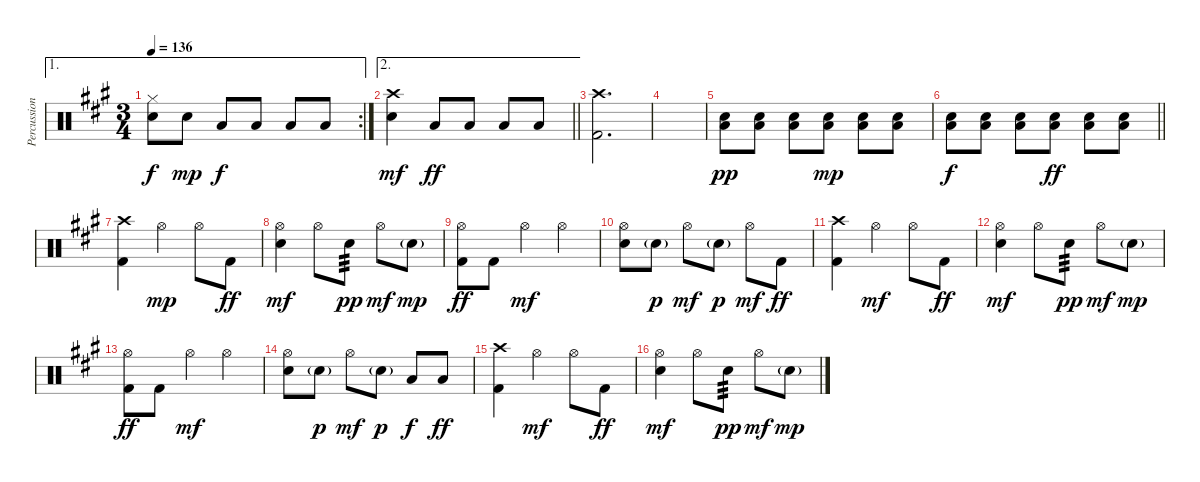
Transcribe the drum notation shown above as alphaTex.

\track ("Percussion" "Percussion") {solo instrument percussion}
\staff {score}
\articulation defaults
\ae 1
\rc 2
\ts (3 4)
\tempo 136
\clef neutral
\ks a
("Hi-Hat (closed)" "Snare (hit) 2").8{dy f} "Snare (hit) 2".8{dy mp} "Low Tom (hit)".8{dy f} "Low Tom (hit)".8 "Low Floor Tom (hit)".8 "Low Floor Tom (hit)".8 |
\ae 2
\barLineRight lightlight
("Crash high (hit)" "Snare (hit) 2").4{dy mf} "Low Tom (hit)".8{dy ff} "Low Tom (hit)".8 "Low Floor Tom (hit)".8 "Low Floor Tom (hit)".8 |
("Crash high (hit)" "Kick (hit) 2").2{d} |
|
("Snare (hit) 2" "Low Floor Tom (hit)").8{dy pp} ("Snare (hit) 2" "Low Floor Tom (hit)").8 ("Snare (hit) 2" "Low Floor Tom (hit)").8 ("Snare (hit) 2" "Low Floor Tom (hit)").8{dy mp} ("Snare (hit) 2" "Low Floor Tom (hit)").8 ("Snare (hit) 2" "Low Floor Tom (hit)").8 |
\barLineRight lightlight
("Snare (hit) 2" "Low Floor Tom (hit)").8{dy f} ("Snare (hit) 2" "Low Floor Tom (hit)").8 ("Snare (hit) 2" "Low Floor Tom (hit)").8 ("Snare (hit) 2" "Low Floor Tom (hit)").8{dy ff} ("Snare (hit) 2" "Low Floor Tom (hit)").8 ("Snare (hit) 2" "Low Floor Tom (hit)").8 |
("Crash high (hit)" "Kick (hit) 2").4 "Hi-Hat (open)".4{dy mp} "Hi-Hat (open)".8 "Kick (hit) 2".8{dy ff} |
("Hi-Hat (open)" "Snare (hit) 2").4{dy mf} "Hi-Hat (open)".8 "Snare (hit) 2".8{tp 3 dy pp} "Hi-Hat (open)".8{dy mf} "Snare (hit) 2"{g}.8{dy mp} |
("Hi-Hat (open)" "Kick (hit) 2").8{dy ff} "Kick (hit) 2".8 "Hi-Hat (open)".4{dy mf} "Hi-Hat (open)".4 |
("Hi-Hat (open)" "Snare (hit) 2").8 "Snare (hit) 2"{g}.8{dy p} "Hi-Hat (open)".8{dy mf} "Snare (hit) 2"{g}.8{dy p} "Hi-Hat (open)".8{dy mf} "Kick (hit) 2".8{dy ff} |
("Crash high (hit)" "Kick (hit) 2").4 "Hi-Hat (open)".4{dy mf} "Hi-Hat (open)".8 "Kick (hit) 2".8{dy ff} |
("Hi-Hat (open)" "Snare (hit) 2").4{dy mf} "Hi-Hat (open)".8 "Snare (hit) 2".8{tp 3 dy pp} "Hi-Hat (open)".8{dy mf} "Snare (hit) 2"{g}.8{dy mp} |
("Hi-Hat (open)" "Kick (hit) 2").8{dy ff} "Kick (hit) 2".8 "Hi-Hat (open)".4{dy mf} "Hi-Hat (open)".4 |
("Hi-Hat (open)" "Snare (hit) 2").8 "Snare (hit) 2"{g}.8{dy p} "Hi-Hat (open)".8{dy mf} "Snare (hit) 2"{g}.8{dy p} "Low Floor Tom (hit)".8{dy f} "Low Floor Tom (hit)".8{dy ff} |
("Crash high (hit)" "Kick (hit) 2").4 "Hi-Hat (open)".4{dy mf} "Hi-Hat (open)".8 "Kick (hit) 2".8{dy ff} |
("Hi-Hat (open)" "Snare (hit) 2").4{dy mf} "Hi-Hat (open)".8 "Snare (hit) 2".8{tp 3 dy pp} "Hi-Hat (open)".8{dy mf} "Snare (hit) 2"{g}.8{dy mp}
